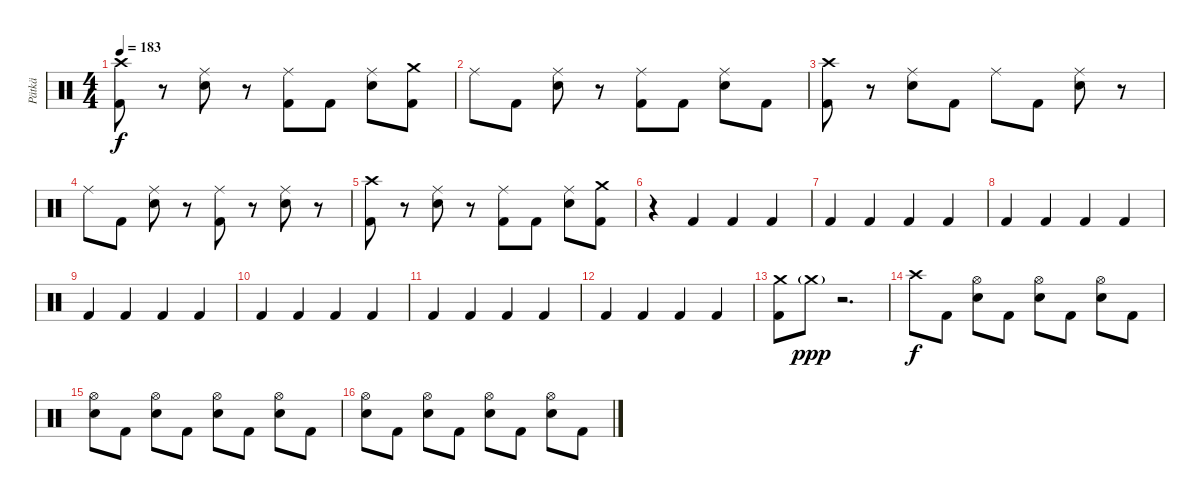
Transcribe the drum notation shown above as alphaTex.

\track ("Pätkä" "Pätkä") {instrument percussion}
\staff {score}
\articulation defaults
\ts (4 4)
\tempo 183
\clef neutral
\ks c
("Crash high (hit)" "Kick (hit) 2").8{dy f} r.8 ("Ride (middle)" "Electric Snare (hit)").8 r.8 ("Ride (middle)" "Kick (hit) 2").8 "Kick (hit) 2".8 ("Ride (middle)" "Electric Snare (hit)").8 ("Crash medium (hit)" "Kick (hit) 2").8 |
"Ride (middle)".8 "Kick (hit) 2".8 ("Ride (middle)" "Electric Snare (hit)").8 r.8 ("Ride (middle)" "Kick (hit) 2").8 "Kick (hit) 2".8 ("Ride (middle)" "Electric Snare (hit)").8 "Kick (hit) 2".8 |
("Crash high (hit)" "Kick (hit) 2").8 r.8 ("Ride (middle)" "Electric Snare (hit)").8 "Kick (hit) 2".8 "Ride (middle)".8 "Kick (hit) 2".8 ("Ride (middle)" "Electric Snare (hit)").8 r.8 |
"Ride (middle)".8 "Kick (hit) 2".8 ("Ride (middle)" "Electric Snare (hit)").8 r.8 ("Ride (middle)" "Kick (hit) 2").8 r.8 ("Ride (middle)" "Electric Snare (hit)").8 r.8 |
("Crash high (hit)" "Kick (hit) 2").8 r.8 ("Ride (middle)" "Electric Snare (hit)").8 r.8 ("Ride (middle)" "Kick (hit) 2").8 "Kick (hit) 2".8 ("Ride (middle)" "Electric Snare (hit)").8 ("Crash medium (hit)" "Kick (hit) 2").8 |
r.4 "Kick (hit) 2".4 "Kick (hit) 2".4 "Kick (hit) 2".4 |
"Kick (hit) 2".4 "Kick (hit) 2".4 "Kick (hit) 2".4 "Kick (hit) 2".4 |
"Kick (hit) 2".4 "Kick (hit) 2".4 "Kick (hit) 2".4 "Kick (hit) 2".4 |
"Kick (hit) 2".4 "Kick (hit) 2".4 "Kick (hit) 2".4 "Kick (hit) 2".4 |
"Kick (hit) 2".4 "Kick (hit) 2".4 "Kick (hit) 2".4 "Kick (hit) 2".4 |
"Kick (hit) 2".4 "Kick (hit) 2".4 "Kick (hit) 2".4 "Kick (hit) 2".4 |
"Kick (hit) 2".4 "Kick (hit) 2".4 "Kick (hit) 2".4 "Kick (hit) 2".4 |
("Crash medium (hit)" "Kick (hit) 2").8 "Crash medium (hit)"{g}.8{dy ppp} r.2{d} |
"Crash high (hit)".8{dy f} "Kick (hit) 2".8 ("Hi-Hat (open)" "Electric Snare (hit)").8 "Kick (hit) 2".8 ("Hi-Hat (open)" "Electric Snare (hit)").8 "Kick (hit) 2".8 ("Hi-Hat (open)" "Electric Snare (hit)").8 "Kick (hit) 2".8 |
("Hi-Hat (open)" "Electric Snare (hit)").8 "Kick (hit) 2".8 ("Hi-Hat (open)" "Electric Snare (hit)").8 "Kick (hit) 2".8 ("Hi-Hat (open)" "Electric Snare (hit)").8 "Kick (hit) 2".8 ("Hi-Hat (open)" "Electric Snare (hit)").8 "Kick (hit) 2".8 |
("Hi-Hat (open)" "Electric Snare (hit)").8 "Kick (hit) 2".8 ("Hi-Hat (open)" "Electric Snare (hit)").8 "Kick (hit) 2".8 ("Hi-Hat (open)" "Electric Snare (hit)").8 "Kick (hit) 2".8 ("Hi-Hat (open)" "Electric Snare (hit)").8 "Kick (hit) 2".8
